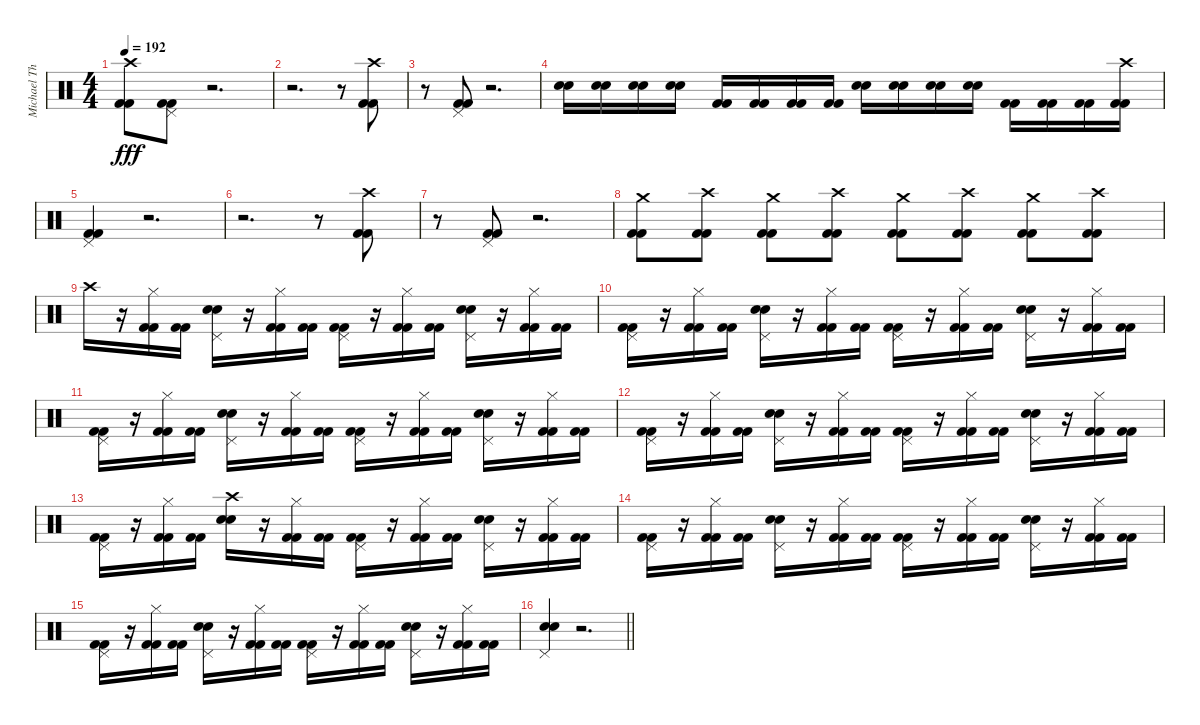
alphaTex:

\track ("Michael Thomas" "Michael Th") {instrument percussion}
\staff {score}
\articulation defaults
\ts (4 4)
\tempo 192
\clef neutral
\ks c
("Crash high (hit)" "Kick (hit) 2" "Kick (hit) 2").8{dy fff} ("Pedal Hi-Hat (hit)" "Kick (hit) 2" "Kick (hit) 2").8 r.2{d} |
r.2{d} r.8 ("Crash high (hit)" "Kick (hit) 2" "Kick (hit) 2").8 |
r.8 ("Pedal Hi-Hat (hit)" "Kick (hit) 2" "Kick (hit) 2").8 r.2{d} |
("Snare (hit) 2" "Electric Snare (hit)").16 ("Snare (hit) 2" "Electric Snare (hit)").16 ("Snare (hit) 2" "Electric Snare (hit)").16 ("Snare (hit) 2" "Electric Snare (hit)").16 ("Kick (hit) 2" "Kick (hit) 2").16 ("Kick (hit) 2" "Kick (hit) 2").16 ("Kick (hit) 2" "Kick (hit) 2").16 ("Kick (hit) 2" "Kick (hit) 2").16 ("Snare (hit) 2" "Electric Snare (hit)").16 ("Snare (hit) 2" "Electric Snare (hit)").16 ("Snare (hit) 2" "Electric Snare (hit)").16 ("Snare (hit) 2" "Electric Snare (hit)").16 ("Kick (hit) 2" "Kick (hit) 2").16 ("Kick (hit) 2" "Kick (hit) 2").16 ("Kick (hit) 2" "Kick (hit) 2").16 ("Crash high (hit)" "Kick (hit) 2" "Kick (hit) 2").16 |
("Pedal Hi-Hat (hit)" "Kick (hit) 2" "Kick (hit) 2").4 r.2{d} |
r.2{d} r.8 ("Crash high (hit)" "Kick (hit) 2" "Kick (hit) 2").8 |
r.8 ("Pedal Hi-Hat (hit)" "Kick (hit) 2" "Kick (hit) 2").8 r.2{d} |
("Crash medium (hit)" "Kick (hit) 2" "Kick (hit) 2").8 ("Crash high (hit)" "Kick (hit) 2" "Kick (hit) 2").8 ("Crash medium (hit)" "Kick (hit) 2" "Kick (hit) 2").8 ("Crash high (hit)" "Kick (hit) 2" "Kick (hit) 2").8 ("Crash medium (hit)" "Kick (hit) 2" "Kick (hit) 2").8 ("Crash high (hit)" "Kick (hit) 2" "Kick (hit) 2").8 ("Crash medium (hit)" "Kick (hit) 2" "Kick (hit) 2").8 ("Crash high (hit)" "Kick (hit) 2" "Kick (hit) 2").8 |
"Crash high (hit)".16 r.16 ("Hi-Hat (closed)" "Kick (hit) 2" "Kick (hit) 2").16 ("Kick (hit) 2" "Kick (hit) 2").16 ("Pedal Hi-Hat (hit)" "Snare (hit) 2" "Electric Snare (hit)").16 r.16 ("Hi-Hat (closed)" "Kick (hit) 2" "Kick (hit) 2").16 ("Kick (hit) 2" "Kick (hit) 2").16 ("Pedal Hi-Hat (hit)" "Kick (hit) 2" "Kick (hit) 2").16 r.16 ("Hi-Hat (closed)" "Kick (hit) 2" "Kick (hit) 2").16 ("Kick (hit) 2" "Kick (hit) 2").16 ("Pedal Hi-Hat (hit)" "Snare (hit) 2" "Electric Snare (hit)").16 r.16 ("Hi-Hat (closed)" "Kick (hit) 2" "Kick (hit) 2").16 ("Kick (hit) 2" "Kick (hit) 2").16 |
("Pedal Hi-Hat (hit)" "Kick (hit) 2" "Kick (hit) 2").16 r.16 ("Hi-Hat (closed)" "Kick (hit) 2" "Kick (hit) 2").16 ("Kick (hit) 2" "Kick (hit) 2").16 ("Pedal Hi-Hat (hit)" "Snare (hit) 2" "Electric Snare (hit)").16 r.16 ("Hi-Hat (closed)" "Kick (hit) 2" "Kick (hit) 2").16 ("Kick (hit) 2" "Kick (hit) 2").16 ("Pedal Hi-Hat (hit)" "Kick (hit) 2" "Kick (hit) 2").16 r.16 ("Hi-Hat (closed)" "Kick (hit) 2" "Kick (hit) 2").16 ("Kick (hit) 2" "Kick (hit) 2").16 ("Pedal Hi-Hat (hit)" "Snare (hit) 2" "Electric Snare (hit)").16 r.16 ("Hi-Hat (closed)" "Kick (hit) 2" "Kick (hit) 2").16 ("Kick (hit) 2" "Kick (hit) 2").16 |
("Pedal Hi-Hat (hit)" "Kick (hit) 2" "Kick (hit) 2").16 r.16 ("Hi-Hat (closed)" "Kick (hit) 2" "Kick (hit) 2").16 ("Kick (hit) 2" "Kick (hit) 2").16 ("Pedal Hi-Hat (hit)" "Snare (hit) 2" "Electric Snare (hit)").16 r.16 ("Hi-Hat (closed)" "Kick (hit) 2" "Kick (hit) 2").16 ("Kick (hit) 2" "Kick (hit) 2").16 ("Pedal Hi-Hat (hit)" "Kick (hit) 2" "Kick (hit) 2").16 r.16 ("Hi-Hat (closed)" "Kick (hit) 2" "Kick (hit) 2").16 ("Kick (hit) 2" "Kick (hit) 2").16 ("Pedal Hi-Hat (hit)" "Snare (hit) 2" "Electric Snare (hit)").16 r.16 ("Hi-Hat (closed)" "Kick (hit) 2" "Kick (hit) 2").16 ("Kick (hit) 2" "Kick (hit) 2").16 |
("Pedal Hi-Hat (hit)" "Kick (hit) 2" "Kick (hit) 2").16 r.16 ("Hi-Hat (closed)" "Kick (hit) 2" "Kick (hit) 2").16 ("Kick (hit) 2" "Kick (hit) 2").16 ("Pedal Hi-Hat (hit)" "Snare (hit) 2" "Electric Snare (hit)").16 r.16 ("Hi-Hat (closed)" "Kick (hit) 2" "Kick (hit) 2").16 ("Kick (hit) 2" "Kick (hit) 2").16 ("Pedal Hi-Hat (hit)" "Kick (hit) 2" "Kick (hit) 2").16 r.16 ("Hi-Hat (closed)" "Kick (hit) 2" "Kick (hit) 2").16 ("Kick (hit) 2" "Kick (hit) 2").16 ("Pedal Hi-Hat (hit)" "Snare (hit) 2" "Electric Snare (hit)").16 r.16 ("Hi-Hat (closed)" "Kick (hit) 2" "Kick (hit) 2").16 ("Kick (hit) 2" "Kick (hit) 2").16 |
("Pedal Hi-Hat (hit)" "Kick (hit) 2" "Kick (hit) 2").16 r.16 ("Hi-Hat (closed)" "Kick (hit) 2" "Kick (hit) 2").16 ("Kick (hit) 2" "Kick (hit) 2").16 ("Crash high (hit)" "Snare (hit) 2" "Electric Snare (hit)").16 r.16 ("Hi-Hat (closed)" "Kick (hit) 2" "Kick (hit) 2").16 ("Kick (hit) 2" "Kick (hit) 2").16 ("Pedal Hi-Hat (hit)" "Kick (hit) 2" "Kick (hit) 2").16 r.16 ("Hi-Hat (closed)" "Kick (hit) 2" "Kick (hit) 2").16 ("Kick (hit) 2" "Kick (hit) 2").16 ("Pedal Hi-Hat (hit)" "Snare (hit) 2" "Electric Snare (hit)").16 r.16 ("Hi-Hat (closed)" "Kick (hit) 2" "Kick (hit) 2").16 ("Kick (hit) 2" "Kick (hit) 2").16 |
("Pedal Hi-Hat (hit)" "Kick (hit) 2" "Kick (hit) 2").16 r.16 ("Hi-Hat (closed)" "Kick (hit) 2" "Kick (hit) 2").16 ("Kick (hit) 2" "Kick (hit) 2").16 ("Pedal Hi-Hat (hit)" "Snare (hit) 2" "Electric Snare (hit)").16 r.16 ("Hi-Hat (closed)" "Kick (hit) 2" "Kick (hit) 2").16 ("Kick (hit) 2" "Kick (hit) 2").16 ("Pedal Hi-Hat (hit)" "Kick (hit) 2" "Kick (hit) 2").16 r.16 ("Hi-Hat (closed)" "Kick (hit) 2" "Kick (hit) 2").16 ("Kick (hit) 2" "Kick (hit) 2").16 ("Pedal Hi-Hat (hit)" "Snare (hit) 2" "Electric Snare (hit)").16 r.16 ("Hi-Hat (closed)" "Kick (hit) 2" "Kick (hit) 2").16 ("Kick (hit) 2" "Kick (hit) 2").16 |
("Pedal Hi-Hat (hit)" "Kick (hit) 2" "Kick (hit) 2").16 r.16 ("Hi-Hat (closed)" "Kick (hit) 2" "Kick (hit) 2").16 ("Kick (hit) 2" "Kick (hit) 2").16 ("Pedal Hi-Hat (hit)" "Snare (hit) 2" "Electric Snare (hit)").16 r.16 ("Hi-Hat (closed)" "Kick (hit) 2" "Kick (hit) 2").16 ("Kick (hit) 2" "Kick (hit) 2").16 ("Pedal Hi-Hat (hit)" "Kick (hit) 2" "Kick (hit) 2").16 r.16 ("Hi-Hat (closed)" "Kick (hit) 2" "Kick (hit) 2").16 ("Kick (hit) 2" "Kick (hit) 2").16 ("Pedal Hi-Hat (hit)" "Snare (hit) 2" "Electric Snare (hit)").16 r.16 ("Hi-Hat (closed)" "Kick (hit) 2" "Kick (hit) 2").16 ("Kick (hit) 2" "Kick (hit) 2").16 |
\barLineRight lightlight
("Pedal Hi-Hat (hit)" "Snare (hit) 2" "Electric Snare (hit)").4 r.2{d}
